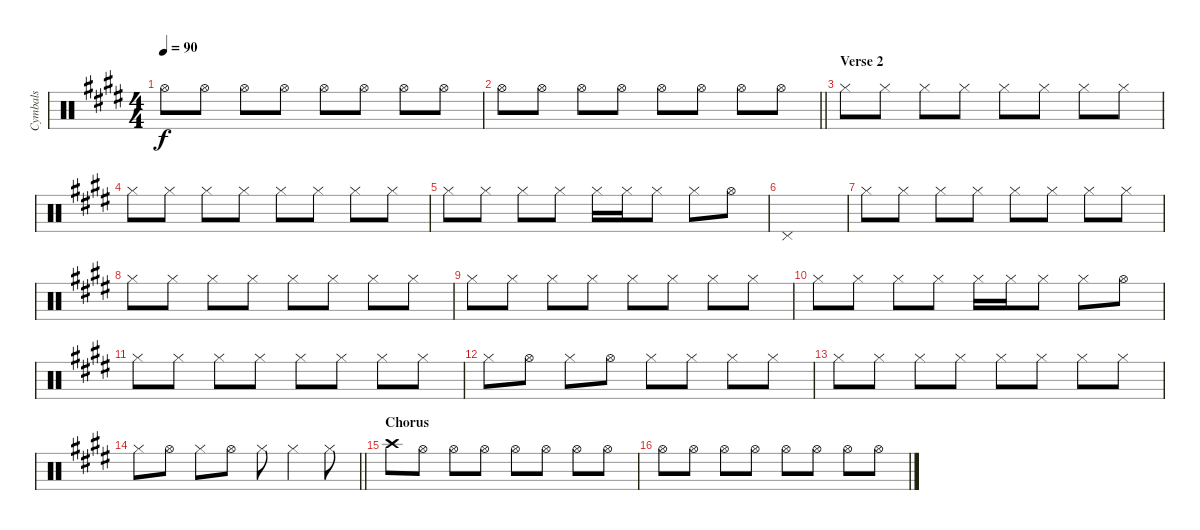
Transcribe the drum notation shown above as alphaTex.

\track ("Cymbals" "Cymbals") {instrument percussion}
\staff {score}
\articulation defaults
\ts (4 4)
\tempo 90
\clef neutral
\ks e "Hi-Hat (open)".8{dy f} "Hi-Hat (open)".8 "Hi-Hat (open)".8 "Hi-Hat (open)".8 "Hi-Hat (open)".8 "Hi-Hat (open)".8 "Hi-Hat (open)".8 "Hi-Hat (open)".8
|
\barLineRight lightlight "Hi-Hat (open)".8 "Hi-Hat (open)".8 "Hi-Hat (open)".8 "Hi-Hat (open)".8 "Hi-Hat (open)".8 "Hi-Hat (open)".8 "Hi-Hat (open)".8 "Hi-Hat (open)".8
|
\section ("" "Verse 2")
"Hi-Hat (closed)".8 "Hi-Hat (closed)".8 "Hi-Hat (closed)".8 "Hi-Hat (closed)".8 "Hi-Hat (closed)".8 "Hi-Hat (closed)".8 "Hi-Hat (closed)".8 "Hi-Hat (closed)".8 |
"Hi-Hat (closed)".8 "Hi-Hat (closed)".8 "Hi-Hat (closed)".8 "Hi-Hat (closed)".8 "Hi-Hat (closed)".8 "Hi-Hat (closed)".8 "Hi-Hat (closed)".8 "Hi-Hat (closed)".8 |
"Hi-Hat (closed)".8 "Hi-Hat (closed)".8 "Hi-Hat (closed)".8 "Hi-Hat (closed)".8 "Hi-Hat (closed)".16 "Hi-Hat (closed)".16 "Hi-Hat (closed)".8 "Hi-Hat (closed)".8 "Hi-Hat (open)".8 |
"Pedal Hi-Hat (hit)".1 |
"Hi-Hat (closed)".8 "Hi-Hat (closed)".8 "Hi-Hat (closed)".8 "Hi-Hat (closed)".8 "Hi-Hat (closed)".8 "Hi-Hat (closed)".8 "Hi-Hat (closed)".8 "Hi-Hat (closed)".8 |
"Hi-Hat (closed)".8 "Hi-Hat (closed)".8 "Hi-Hat (closed)".8 "Hi-Hat (closed)".8 "Hi-Hat (closed)".8 "Hi-Hat (closed)".8 "Hi-Hat (closed)".8 "Hi-Hat (closed)".8 |
"Hi-Hat (closed)".8 "Hi-Hat (closed)".8 "Hi-Hat (closed)".8 "Hi-Hat (closed)".8 "Hi-Hat (closed)".8 "Hi-Hat (closed)".8 "Hi-Hat (closed)".8 "Hi-Hat (closed)".8 |
"Hi-Hat (closed)".8 "Hi-Hat (closed)".8 "Hi-Hat (closed)".8 "Hi-Hat (closed)".8 "Hi-Hat (closed)".16 "Hi-Hat (closed)".16 "Hi-Hat (closed)".8 "Hi-Hat (closed)".8 "Hi-Hat (open)".8 |
"Hi-Hat (closed)".8 "Hi-Hat (closed)".8 "Hi-Hat (closed)".8 "Hi-Hat (closed)".8 "Hi-Hat (closed)".8 "Hi-Hat (closed)".8 "Hi-Hat (closed)".8 "Hi-Hat (closed)".8 |
"Hi-Hat (closed)".8 "Hi-Hat (open)".8 "Hi-Hat (closed)".8 "Hi-Hat (open)".8 "Hi-Hat (closed)".8 "Hi-Hat (closed)".8 "Hi-Hat (closed)".8 "Hi-Hat (closed)".8 |
"Hi-Hat (closed)".8 "Hi-Hat (closed)".8 "Hi-Hat (closed)".8 "Hi-Hat (closed)".8 "Hi-Hat (closed)".8 "Hi-Hat (closed)".8 "Hi-Hat (closed)".8 "Hi-Hat (closed)".8 |
\barLineRight lightlight "Hi-Hat (closed)".8 "Hi-Hat (open)".8 "Hi-Hat (closed)".8 "Hi-Hat (open)".8 "Hi-Hat (closed)".8 "Hi-Hat (closed)".4 "Hi-Hat (closed)".8
|
\section ("" "Chorus")
"Crash high (hit)".8 "Hi-Hat (open)".8 "Hi-Hat (open)".8 "Hi-Hat (open)".8 "Hi-Hat (open)".8 "Hi-Hat (open)".8 "Hi-Hat (open)".8 "Hi-Hat (open)".8 |
"Hi-Hat (open)".8 "Hi-Hat (open)".8 "Hi-Hat (open)".8 "Hi-Hat (open)".8 "Hi-Hat (open)".8 "Hi-Hat (open)".8 "Hi-Hat (open)".8 "Hi-Hat (open)".8
